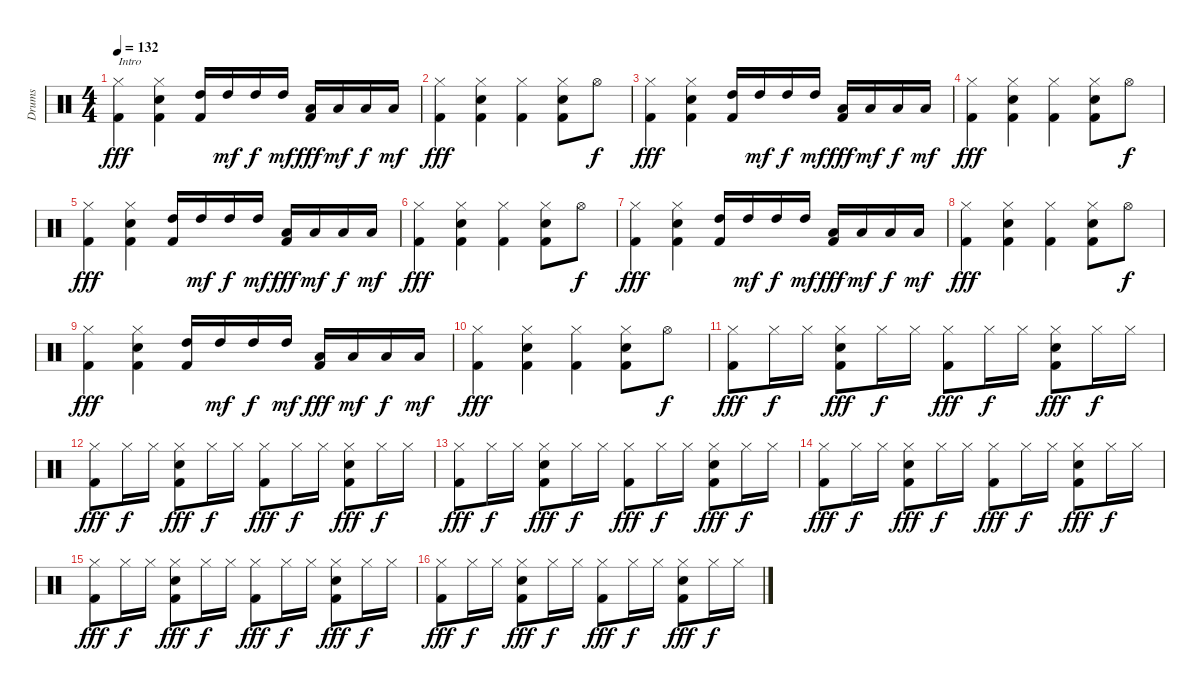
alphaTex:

\track ("Drums" "Drums") {instrument percussion}
\staff {score}
\articulation defaults
\ts (4 4)
\tempo 132
\clef neutral
\ks c
("Hi-Hat (closed)" "Kick (hit) 2").4{txt "Intro" dy fff} ("Hi-Hat (closed)" "Snare (hit) 2" "Kick (hit) 2").4 ("High Tom (hit)" "Kick (hit) 2").16 "High Tom (hit)".16{dy mf} "High Tom (hit)".16{dy f} "High Tom (hit)".16{dy mf} ("Low Tom (hit)" "Kick (hit) 2").16{dy fff} "Low Tom (hit)".16{dy mf} "Low Tom (hit)".16{dy f} "Low Tom (hit)".16{dy mf} |
("Hi-Hat (closed)" "Kick (hit) 2").4{dy fff} ("Hi-Hat (closed)" "Snare (hit) 2" "Kick (hit) 2").4 ("Hi-Hat (closed)" "Kick (hit) 2").4 ("Hi-Hat (closed)" "Snare (hit) 2" "Kick (hit) 2").8 "Hi-Hat (open)".8{dy f} |
("Hi-Hat (closed)" "Kick (hit) 2").4{dy fff} ("Hi-Hat (closed)" "Snare (hit) 2" "Kick (hit) 2").4 ("High Tom (hit)" "Kick (hit) 2").16 "High Tom (hit)".16{dy mf} "High Tom (hit)".16{dy f} "High Tom (hit)".16{dy mf} ("Low Tom (hit)" "Kick (hit) 2").16{dy fff} "Low Tom (hit)".16{dy mf} "Low Tom (hit)".16{dy f} "Low Tom (hit)".16{dy mf} |
("Hi-Hat (closed)" "Kick (hit) 2").4{dy fff} ("Hi-Hat (closed)" "Snare (hit) 2" "Kick (hit) 2").4 ("Hi-Hat (closed)" "Kick (hit) 2").4 ("Hi-Hat (closed)" "Snare (hit) 2" "Kick (hit) 2").8 "Hi-Hat (open)".8{dy f} |
("Hi-Hat (closed)" "Kick (hit) 2").4{dy fff} ("Hi-Hat (closed)" "Snare (hit) 2" "Kick (hit) 2").4 ("High Tom (hit)" "Kick (hit) 2").16 "High Tom (hit)".16{dy mf} "High Tom (hit)".16{dy f} "High Tom (hit)".16{dy mf} ("Low Tom (hit)" "Kick (hit) 2").16{dy fff} "Low Tom (hit)".16{dy mf} "Low Tom (hit)".16{dy f} "Low Tom (hit)".16{dy mf} |
("Hi-Hat (closed)" "Kick (hit) 2").4{dy fff} ("Hi-Hat (closed)" "Snare (hit) 2" "Kick (hit) 2").4 ("Hi-Hat (closed)" "Kick (hit) 2").4 ("Hi-Hat (closed)" "Snare (hit) 2" "Kick (hit) 2").8 "Hi-Hat (open)".8{dy f} |
("Hi-Hat (closed)" "Kick (hit) 2").4{dy fff} ("Hi-Hat (closed)" "Snare (hit) 2" "Kick (hit) 2").4 ("High Tom (hit)" "Kick (hit) 2").16 "High Tom (hit)".16{dy mf} "High Tom (hit)".16{dy f} "High Tom (hit)".16{dy mf} ("Low Tom (hit)" "Kick (hit) 2").16{dy fff} "Low Tom (hit)".16{dy mf} "Low Tom (hit)".16{dy f} "Low Tom (hit)".16{dy mf} |
("Hi-Hat (closed)" "Kick (hit) 2").4{dy fff} ("Hi-Hat (closed)" "Snare (hit) 2" "Kick (hit) 2").4 ("Hi-Hat (closed)" "Kick (hit) 2").4 ("Hi-Hat (closed)" "Snare (hit) 2" "Kick (hit) 2").8 "Hi-Hat (open)".8{dy f} |
("Hi-Hat (closed)" "Kick (hit) 2").4{dy fff} ("Hi-Hat (closed)" "Snare (hit) 2" "Kick (hit) 2").4 ("High Tom (hit)" "Kick (hit) 2").16 "High Tom (hit)".16{dy mf} "High Tom (hit)".16{dy f} "High Tom (hit)".16{dy mf} ("Low Tom (hit)" "Kick (hit) 2").16{dy fff} "Low Tom (hit)".16{dy mf} "Low Tom (hit)".16{dy f} "Low Tom (hit)".16{dy mf} |
("Hi-Hat (closed)" "Kick (hit) 2").4{dy fff} ("Hi-Hat (closed)" "Snare (hit) 2" "Kick (hit) 2").4 ("Hi-Hat (closed)" "Kick (hit) 2").4 ("Hi-Hat (closed)" "Snare (hit) 2" "Kick (hit) 2").8 "Hi-Hat (open)".8{dy f} |
("Hi-Hat (closed)" "Kick (hit) 2").8{dy fff} "Hi-Hat (closed)".16{dy f} "Hi-Hat (closed)".16 ("Hi-Hat (closed)" "Snare (hit) 2" "Kick (hit) 2").8{dy fff} "Hi-Hat (closed)".16{dy f} "Hi-Hat (closed)".16 ("Hi-Hat (closed)" "Kick (hit) 2").8{dy fff} "Hi-Hat (closed)".16{dy f} "Hi-Hat (closed)".16 ("Hi-Hat (closed)" "Snare (hit) 2" "Kick (hit) 2").8{dy fff} "Hi-Hat (closed)".16{dy f} "Hi-Hat (closed)".16 |
("Hi-Hat (closed)" "Kick (hit) 2").8{dy fff} "Hi-Hat (closed)".16{dy f} "Hi-Hat (closed)".16 ("Hi-Hat (closed)" "Snare (hit) 2" "Kick (hit) 2").8{dy fff} "Hi-Hat (closed)".16{dy f} "Hi-Hat (closed)".16 ("Hi-Hat (closed)" "Kick (hit) 2").8{dy fff} "Hi-Hat (closed)".16{dy f} "Hi-Hat (closed)".16 ("Hi-Hat (closed)" "Snare (hit) 2" "Kick (hit) 2").8{dy fff} "Hi-Hat (closed)".16{dy f} "Hi-Hat (closed)".16 |
("Hi-Hat (closed)" "Kick (hit) 2").8{dy fff} "Hi-Hat (closed)".16{dy f} "Hi-Hat (closed)".16 ("Hi-Hat (closed)" "Snare (hit) 2" "Kick (hit) 2").8{dy fff} "Hi-Hat (closed)".16{dy f} "Hi-Hat (closed)".16 ("Hi-Hat (closed)" "Kick (hit) 2").8{dy fff} "Hi-Hat (closed)".16{dy f} "Hi-Hat (closed)".16 ("Hi-Hat (closed)" "Snare (hit) 2" "Kick (hit) 2").8{dy fff} "Hi-Hat (closed)".16{dy f} "Hi-Hat (closed)".16 |
("Hi-Hat (closed)" "Kick (hit) 2").8{dy fff} "Hi-Hat (closed)".16{dy f} "Hi-Hat (closed)".16 ("Hi-Hat (closed)" "Snare (hit) 2" "Kick (hit) 2").8{dy fff} "Hi-Hat (closed)".16{dy f} "Hi-Hat (closed)".16 ("Hi-Hat (closed)" "Kick (hit) 2").8{dy fff} "Hi-Hat (closed)".16{dy f} "Hi-Hat (closed)".16 ("Hi-Hat (closed)" "Snare (hit) 2" "Kick (hit) 2").8{dy fff} "Hi-Hat (closed)".16{dy f} "Hi-Hat (closed)".16 |
("Hi-Hat (closed)" "Kick (hit) 2").8{dy fff} "Hi-Hat (closed)".16{dy f} "Hi-Hat (closed)".16 ("Hi-Hat (closed)" "Snare (hit) 2" "Kick (hit) 2").8{dy fff} "Hi-Hat (closed)".16{dy f} "Hi-Hat (closed)".16 ("Hi-Hat (closed)" "Kick (hit) 2").8{dy fff} "Hi-Hat (closed)".16{dy f} "Hi-Hat (closed)".16 ("Hi-Hat (closed)" "Snare (hit) 2" "Kick (hit) 2").8{dy fff} "Hi-Hat (closed)".16{dy f} "Hi-Hat (closed)".16 |
("Hi-Hat (closed)" "Kick (hit) 2").8{dy fff} "Hi-Hat (closed)".16{dy f} "Hi-Hat (closed)".16 ("Hi-Hat (closed)" "Snare (hit) 2" "Kick (hit) 2").8{dy fff} "Hi-Hat (closed)".16{dy f} "Hi-Hat (closed)".16 ("Hi-Hat (closed)" "Kick (hit) 2").8{dy fff} "Hi-Hat (closed)".16{dy f} "Hi-Hat (closed)".16 ("Hi-Hat (closed)" "Snare (hit) 2" "Kick (hit) 2").8{dy fff} "Hi-Hat (closed)".16{dy f} "Hi-Hat (closed)".16
